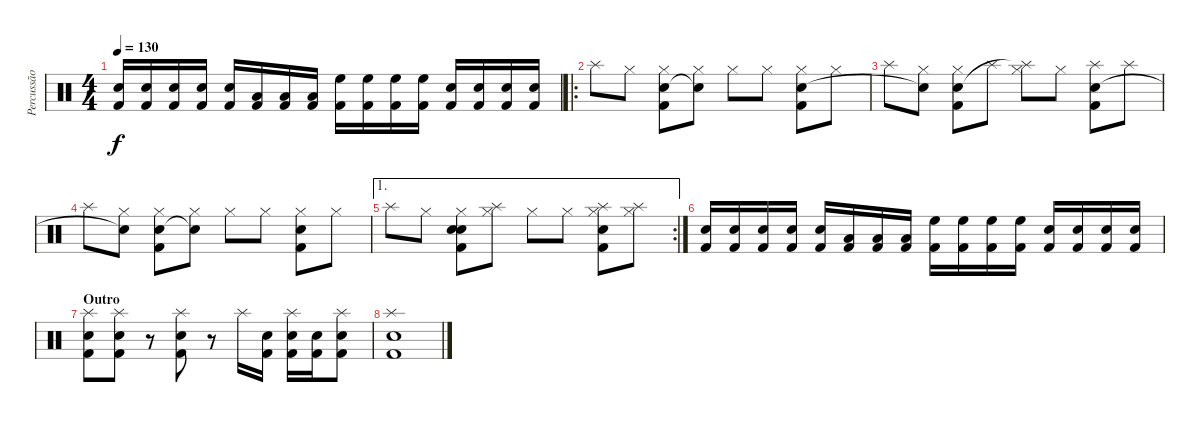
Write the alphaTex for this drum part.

\track ("Percussão" "Percussão") {instrument percussion}
\staff {score}
\articulation defaults
\ts (4 4)
\tempo 130
\clef neutral
\ks c
("Kick (hit) 2" "Snare (hit) 2").16{dy f} ("Kick (hit) 2" "Snare (hit) 2").16 ("Kick (hit) 2" "Snare (hit) 2").16 ("Kick (hit) 2" "Snare (hit) 2").16 ("Kick (hit) 2" "Snare (hit) 2").16 ("Kick (hit) 2" "Low Tom (hit)").16 ("Kick (hit) 2" "Low Tom (hit)").16 ("Kick (hit) 2" "Low Tom (hit)").16 ("Kick (hit) 2" "High Floor Tom (hit)").16 ("Kick (hit) 2" "High Floor Tom (hit)").16 ("Kick (hit) 2" "High Floor Tom (hit)").16 ("Kick (hit) 2" "High Floor Tom (hit)").16 ("Kick (hit) 2" "Snare (hit) 2").16 ("Kick (hit) 2" "Snare (hit) 2").16 ("Kick (hit) 2" "Snare (hit) 2").16 ("Kick (hit) 2" "Snare (hit) 2").16 |
\ro "Splash (hit)".8 "Hi-Hat (closed)".8
("Kick (hit) 2" "Snare (hit) 2" "Hi-Hat (closed)").8 ("Hi-Hat (closed)" "Snare (hit)"{t}).8 "Hi-Hat (closed)".8 "Hi-Hat (closed)".8 ("Kick (hit) 2" "Snare (hit) 2" "Hi-Hat (closed)").8 "Hi-Hat (closed)".8 |
"Splash (hit)".8 ("Hi-Hat (closed)" "Snare (hit)"{t}).8 ("Kick (hit) 2" "Snare (hit) 2" "Hi-Hat (closed)").8 "Splash (hit)".8 ("Hi-Hat (closed)" "Splash (hit)"{t}).8 "Hi-Hat (closed)".8 ("Kick (hit) 2" "Snare (hit) 2" "Splash (hit)").8 "Splash (hit)".8 |
"Splash (hit)".8 ("Hi-Hat (closed)" "Snare (hit)"{t}).8 ("Kick (hit) 2" "Snare (hit) 2" "Hi-Hat (closed)").8 ("Hi-Hat (closed)" "Snare (hit)"{t}).8 "Hi-Hat (closed)".8 "Hi-Hat (closed)".8 ("Kick (hit) 2" "Snare (hit) 2" "Hi-Hat (closed)").8 "Hi-Hat (closed)".8 |
\ae 1
\rc 2 "Splash (hit)".8 "Hi-Hat (closed)".8
("Kick (hit) 2" "Snare (hit) 2" "Hi-Hat (closed)" "Snare (hit)").8 ("Hi-Hat (closed)" "Splash (hit)").8 "Hi-Hat (closed)".8 "Hi-Hat (closed)".8 ("Kick (hit) 2" "Snare (hit) 2" "Hi-Hat (closed)" "Splash (hit)").8 ("Hi-Hat (closed)" "Splash (hit)").8 |
("Kick (hit) 2" "Snare (hit) 2").16 ("Kick (hit) 2" "Snare (hit) 2").16 ("Kick (hit) 2" "Snare (hit) 2").16 ("Kick (hit) 2" "Snare (hit) 2").16 ("Kick (hit) 2" "Snare (hit) 2").16 ("Kick (hit) 2" "Low Tom (hit)").16 ("Kick (hit) 2" "Low Tom (hit)").16 ("Kick (hit) 2" "Low Tom (hit)").16 ("Kick (hit) 2" "High Floor Tom (hit)").16 ("Kick (hit) 2" "High Floor Tom (hit)").16 ("Kick (hit) 2" "High Floor Tom (hit)").16 ("Kick (hit) 2" "High Floor Tom (hit)").16 ("Kick (hit) 2" "Snare (hit) 2").16 ("Kick (hit) 2" "Snare (hit) 2").16 ("Kick (hit) 2" "Snare (hit) 2").16 ("Kick (hit) 2" "Snare (hit) 2").16 |
\section ("" "Outro")
("Kick (hit) 2" "Snare (hit) 2" "Splash (hit)").8 ("Kick (hit) 2" "Snare (hit) 2" "Splash (hit)").8 r.8 ("Kick (hit) 2" "Snare (hit) 2" "Splash (hit)").8 r.8 "Splash (hit)".16 ("Kick (hit) 2" "Snare (hit) 2").16 ("Kick (hit) 2" "Snare (hit) 2" "Splash (hit)").16 ("Kick (hit) 2" "Snare (hit) 2").16 ("Kick (hit) 2" "Snare (hit) 2" "Splash (hit)").8 |
("Kick (hit) 2" "Snare (hit) 2" "Splash (hit)").1
